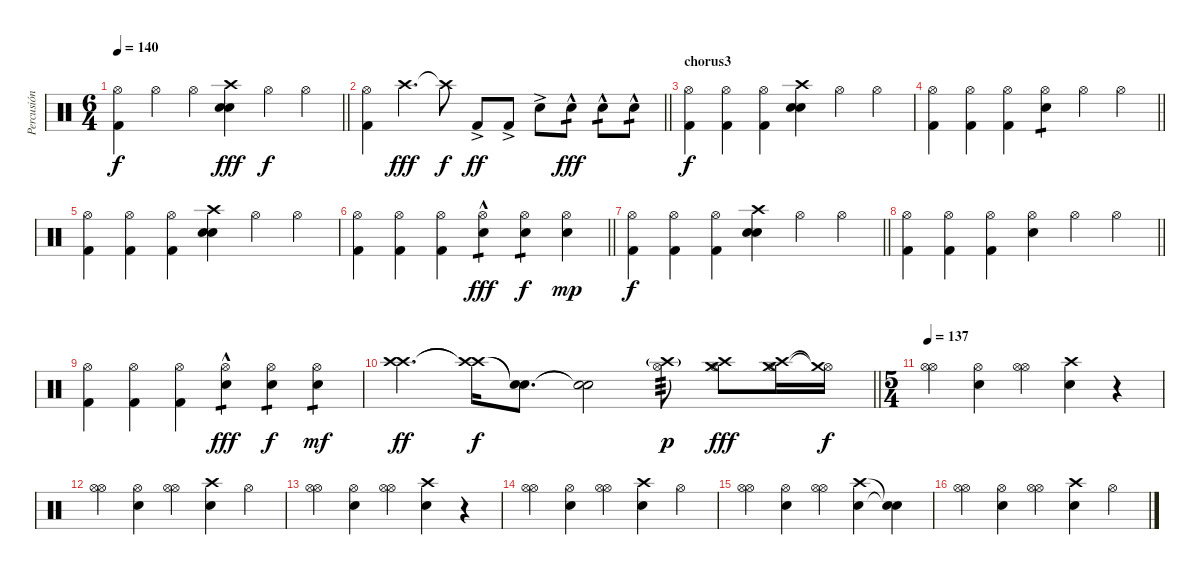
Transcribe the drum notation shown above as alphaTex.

\track ("Percusión" "Percusión") {instrument percussion}
\staff {score}
\articulation defaults
\ts (6 4)
\tempo 140
\clef neutral
\barLineRight lightlight
\ks c
("Hi-Hat (open)" "Kick (hit) 2").4{dy f} "Hi-Hat (open)".4 "Hi-Hat (open)".4 ("Crash high (hit)" "Electric Snare (hit)" "Electric Snare (hit)").4{dy fff} "Hi-Hat (open)".4{dy f} "Hi-Hat (open)".4 |
\barLineRight lightlight
("Hi-Hat (open)" "Kick (hit) 2").4 "Crash high (hit)".4{d dy fff} "Crash high (hit)"{t}.8{dy f} "Kick (hit) 2"{ac}.8{dy ff volume 16} "Kick (hit) 2"{ac}.8 "Snare (hit) 2"{ac}.8 "Snare (hit) 2"{hac}.8{tp 1 dy fff} "Snare (hit) 2"{hac}.8{tp 1} "Snare (hit) 2"{hac}.8{tp 1} |
\section ("" "chorus3")
("Hi-Hat (open)" "Kick (hit) 2").4{dy f} ("Hi-Hat (open)" "Kick (hit) 2").4 ("Hi-Hat (open)" "Kick (hit) 2").4 ("Crash high (hit)" "Electric Snare (hit)" "Electric Snare (hit)").4 "Hi-Hat (open)".4 "Hi-Hat (open)".4 |
\barLineRight lightlight
("Hi-Hat (open)" "Kick (hit) 2").4 ("Hi-Hat (open)" "Kick (hit) 2").4 ("Hi-Hat (open)" "Kick (hit) 2").4 ("Hi-Hat (open)" "Snare (hit) 2").4{tp 1} "Hi-Hat (open)".4 "Hi-Hat (open)".4 |
("Hi-Hat (open)" "Kick (hit) 2").4 ("Hi-Hat (open)" "Kick (hit) 2").4 ("Hi-Hat (open)" "Kick (hit) 2").4 ("Crash high (hit)" "Electric Snare (hit)" "Electric Snare (hit)").4 "Hi-Hat (open)".4 "Hi-Hat (open)".4 |
\barLineRight lightlight
("Hi-Hat (open)" "Kick (hit) 2").4 ("Hi-Hat (open)" "Kick (hit) 2").4 ("Hi-Hat (open)" "Kick (hit) 2").4 ("Hi-Hat (open)" "Electric Snare (hit)"{hac}).4{tp 1 dy fff} ("Hi-Hat (open)" "Snare (hit) 2").4{tp 1 dy f} ("Hi-Hat (open)" "Snare (hit) 2").4{dy mp} |
\barLineRight lightlight
("Hi-Hat (open)" "Kick (hit) 2").4{dy f} ("Hi-Hat (open)" "Kick (hit) 2").4 ("Hi-Hat (open)" "Kick (hit) 2").4 ("Crash high (hit)" "Electric Snare (hit)" "Electric Snare (hit)").4 "Hi-Hat (open)".4 "Hi-Hat (open)".4 |
\barLineRight lightlight
("Hi-Hat (open)" "Kick (hit) 2").4 ("Hi-Hat (open)" "Kick (hit) 2").4 ("Hi-Hat (open)" "Kick (hit) 2").4 ("Hi-Hat (open)" "Snare (hit) 2").4 "Hi-Hat (open)".4 "Hi-Hat (open)".4 |
("Hi-Hat (open)" "Kick (hit) 2").4 ("Hi-Hat (open)" "Kick (hit) 2").4 ("Hi-Hat (open)" "Kick (hit) 2").4 ("Hi-Hat (open)" "Electric Snare (hit)"{hac}).4{tp 1 dy fff} ("Hi-Hat (open)" "Snare (hit) 2").4{tp 1 dy f} ("Hi-Hat (open)" "Snare (hit) 2").4{tp 1 dy mf} |
\barLineRight lightlight
("Crash high (hit)" "Crash high (hit)").4{d dy ff} ("Crash high (hit)"{t} "Crash high (hit)"{t}).16{dy f} ("Snare (hit)"{t} "Snare (hit)"{t}).8{d} ("Snare (hit)"{t} "Snare (hit)"{t}).2 ("Hi-Hat (open)" "Crash high (hit)"{g}).8{tp 3 dy p} ("Hi-Hat (open)" "Crash high (hit)" "Crash medium (hit)").8{dy fff} ("Hi-Hat (open)" "Crash high (hit)" "Crash medium (hit)").16 ("Hi-Hat (open)"{t} "Crash medium (hit)"{t}).16{dy f} |
\ts (5 4)
\tempo 137
("Hi-Hat (open)" "Hi-Hat (open)").4 ("Hi-Hat (open)" "Electric Snare (hit)").4 ("Hi-Hat (open)" "Hi-Hat (open)").4 ("Crash high (hit)" "Electric Snare (hit)").4 r.4 |
("Hi-Hat (open)" "Hi-Hat (open)").4 ("Hi-Hat (open)" "Electric Snare (hit)").4 ("Hi-Hat (open)" "Hi-Hat (open)").4 ("Crash high (hit)" "Electric Snare (hit)").4 "Hi-Hat (open)".4 |
("Hi-Hat (open)" "Hi-Hat (open)").4 ("Hi-Hat (open)" "Electric Snare (hit)").4 ("Hi-Hat (open)" "Hi-Hat (open)").4 ("Crash high (hit)" "Electric Snare (hit)").4 r.4 |
("Hi-Hat (open)" "Hi-Hat (open)").4 ("Hi-Hat (open)" "Electric Snare (hit)").4 ("Hi-Hat (open)" "Hi-Hat (open)").4 ("Crash high (hit)" "Electric Snare (hit)").4 "Hi-Hat (open)".4 |
("Hi-Hat (open)" "Hi-Hat (open)").4 ("Hi-Hat (open)" "Electric Snare (hit)").4 ("Hi-Hat (open)" "Hi-Hat (open)").4 ("Crash high (hit)" "Electric Snare (hit)").4 ("Snare (hit)"{t} "Snare (hit)"{t}).4 |
("Hi-Hat (open)" "Hi-Hat (open)").4 ("Hi-Hat (open)" "Electric Snare (hit)").4 ("Hi-Hat (open)" "Hi-Hat (open)").4 ("Crash high (hit)" "Electric Snare (hit)").4 "Hi-Hat (open)".4
